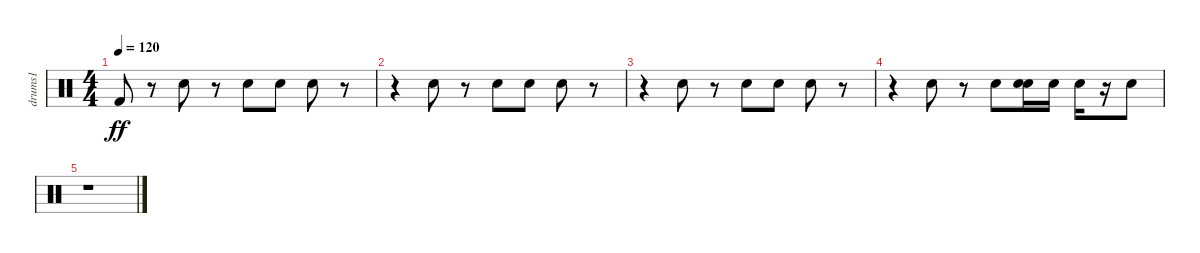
\track ("drums1" "drums1") {instrument percussion}
\staff {score}
\articulation defaults
\ts (4 4)
\tempo 120
\clef neutral
\ks c "Kick (hit) 2".8{dy ff}
r.8 "Snare (hit) 2".8 r.8 "Hand Clap (hit)".8 "Hand Clap (hit)".8 "Snare (hit) 2".8 r.8 |
r.4 "Snare (hit) 2".8 r.8 "Hand Clap (hit)".8 "Hand Clap (hit)".8 "Snare (hit) 2".8 r.8 |
r.4 "Snare (hit) 2".8 r.8 "Hand Clap (hit)".8 "Hand Clap (hit)".8 "Snare (hit) 2".8 r.8 |
r.4 "Snare (hit) 2".8 r.8 "Hand Clap (hit)".8 ("Snare (hit) 2" "Hand Clap (hit)").16 "Snare (hit) 2".16 "Snare (hit) 2".16 r.16 "Snare (hit) 2".8 |
r.1
